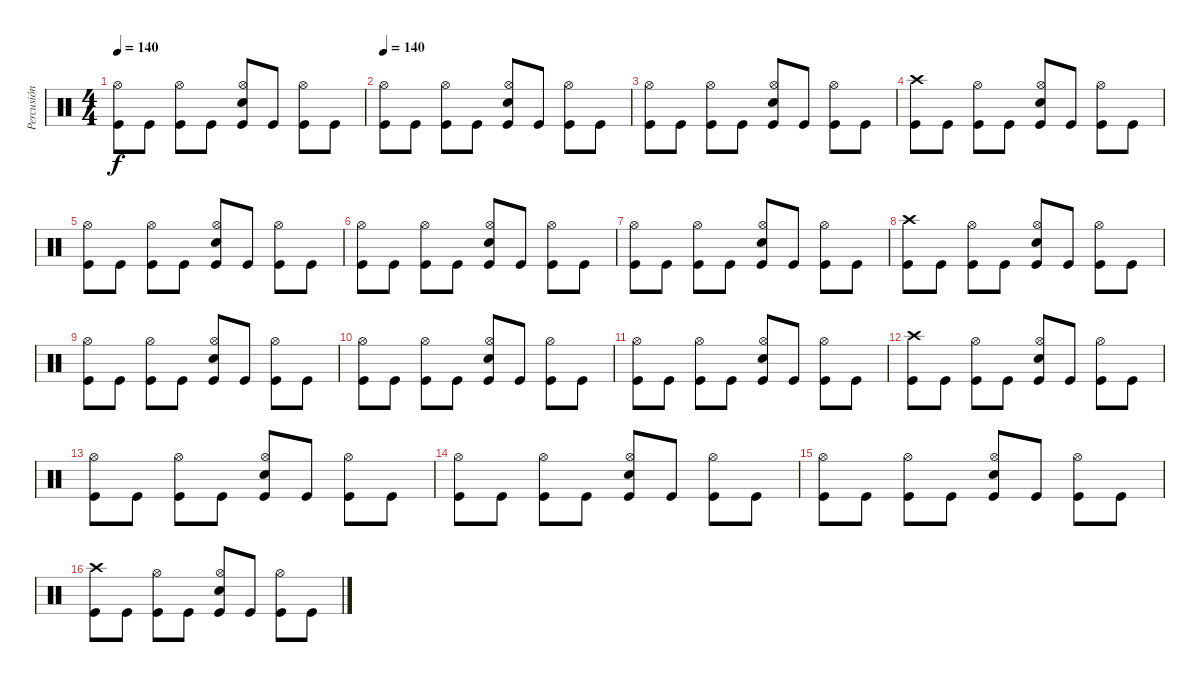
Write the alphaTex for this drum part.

\track ("Percusión" "Percusión") {instrument percussion}
\staff
\articulation defaults
\ts (4 4)
\tempo 140
\clef neutral
\ks c
("Kick (hit)" "Hi-Hat (open)").8{dy f} "Kick (hit)".8 ("Kick (hit)" "Hi-Hat (open)").8 "Kick (hit)".8 ("Kick (hit)" "Hi-Hat (open)" "Electric Snare (hit)").8 "Kick (hit)".8 ("Kick (hit)" "Hi-Hat (open)").8 "Kick (hit)".8 |
\tempo 140
("Kick (hit)" "Hi-Hat (open)").8 "Kick (hit)".8 ("Kick (hit)" "Hi-Hat (open)").8 "Kick (hit)".8 ("Kick (hit)" "Hi-Hat (open)" "Electric Snare (hit)").8 "Kick (hit)".8 ("Kick (hit)" "Hi-Hat (open)").8 "Kick (hit)".8 |
("Kick (hit)" "Hi-Hat (open)").8 "Kick (hit)".8 ("Kick (hit)" "Hi-Hat (open)").8 "Kick (hit)".8 ("Kick (hit)" "Hi-Hat (open)" "Electric Snare (hit)").8 "Kick (hit)".8 ("Kick (hit)" "Hi-Hat (open)").8 "Kick (hit)".8 |
("Kick (hit)" "Crash high (hit)").8 "Kick (hit)".8 ("Kick (hit)" "Hi-Hat (open)").8 "Kick (hit)".8 ("Kick (hit)" "Hi-Hat (open)" "Electric Snare (hit)").8 "Kick (hit)".8 ("Kick (hit)" "Hi-Hat (open)").8 "Kick (hit)".8 |
("Kick (hit)" "Hi-Hat (open)").8 "Kick (hit)".8 ("Kick (hit)" "Hi-Hat (open)").8 "Kick (hit)".8 ("Kick (hit)" "Hi-Hat (open)" "Electric Snare (hit)").8 "Kick (hit)".8 ("Kick (hit)" "Hi-Hat (open)").8 "Kick (hit)".8 |
("Kick (hit)" "Hi-Hat (open)").8 "Kick (hit)".8 ("Kick (hit)" "Hi-Hat (open)").8 "Kick (hit)".8 ("Kick (hit)" "Hi-Hat (open)" "Electric Snare (hit)").8 "Kick (hit)".8 ("Kick (hit)" "Hi-Hat (open)").8 "Kick (hit)".8 |
("Kick (hit)" "Hi-Hat (open)").8 "Kick (hit)".8 ("Kick (hit)" "Hi-Hat (open)").8 "Kick (hit)".8 ("Kick (hit)" "Hi-Hat (open)" "Electric Snare (hit)").8 "Kick (hit)".8 ("Kick (hit)" "Hi-Hat (open)").8 "Kick (hit)".8 |
("Kick (hit)" "Crash high (hit)").8 "Kick (hit)".8 ("Kick (hit)" "Hi-Hat (open)").8 "Kick (hit)".8 ("Kick (hit)" "Hi-Hat (open)" "Electric Snare (hit)").8 "Kick (hit)".8 ("Kick (hit)" "Hi-Hat (open)").8 "Kick (hit)".8 |
("Kick (hit)" "Hi-Hat (open)").8 "Kick (hit)".8 ("Kick (hit)" "Hi-Hat (open)").8 "Kick (hit)".8 ("Kick (hit)" "Hi-Hat (open)" "Electric Snare (hit)").8 "Kick (hit)".8 ("Kick (hit)" "Hi-Hat (open)").8 "Kick (hit)".8 |
("Kick (hit)" "Hi-Hat (open)").8 "Kick (hit)".8 ("Kick (hit)" "Hi-Hat (open)").8 "Kick (hit)".8 ("Kick (hit)" "Hi-Hat (open)" "Electric Snare (hit)").8 "Kick (hit)".8 ("Kick (hit)" "Hi-Hat (open)").8 "Kick (hit)".8 |
("Kick (hit)" "Hi-Hat (open)").8 "Kick (hit)".8 ("Kick (hit)" "Hi-Hat (open)").8 "Kick (hit)".8 ("Kick (hit)" "Hi-Hat (open)" "Electric Snare (hit)").8 "Kick (hit)".8 ("Kick (hit)" "Hi-Hat (open)").8 "Kick (hit)".8 |
("Kick (hit)" "Crash high (hit)").8 "Kick (hit)".8 ("Kick (hit)" "Hi-Hat (open)").8 "Kick (hit)".8 ("Kick (hit)" "Hi-Hat (open)" "Electric Snare (hit)").8 "Kick (hit)".8 ("Kick (hit)" "Hi-Hat (open)").8 "Kick (hit)".8 |
("Kick (hit)" "Hi-Hat (open)").8 "Kick (hit)".8 ("Kick (hit)" "Hi-Hat (open)").8 "Kick (hit)".8 ("Kick (hit)" "Hi-Hat (open)" "Electric Snare (hit)").8 "Kick (hit)".8 ("Kick (hit)" "Hi-Hat (open)").8 "Kick (hit)".8 |
("Kick (hit)" "Hi-Hat (open)").8 "Kick (hit)".8 ("Kick (hit)" "Hi-Hat (open)").8 "Kick (hit)".8 ("Kick (hit)" "Hi-Hat (open)" "Electric Snare (hit)").8 "Kick (hit)".8 ("Kick (hit)" "Hi-Hat (open)").8 "Kick (hit)".8 |
("Kick (hit)" "Hi-Hat (open)").8 "Kick (hit)".8 ("Kick (hit)" "Hi-Hat (open)").8 "Kick (hit)".8 ("Kick (hit)" "Hi-Hat (open)" "Electric Snare (hit)").8 "Kick (hit)".8 ("Kick (hit)" "Hi-Hat (open)").8 "Kick (hit)".8 |
("Kick (hit)" "Crash high (hit)").8 "Kick (hit)".8 ("Kick (hit)" "Hi-Hat (open)").8 "Kick (hit)".8 ("Kick (hit)" "Hi-Hat (open)" "Electric Snare (hit)").8 "Kick (hit)".8 ("Kick (hit)" "Hi-Hat (open)").8 "Kick (hit)".8
